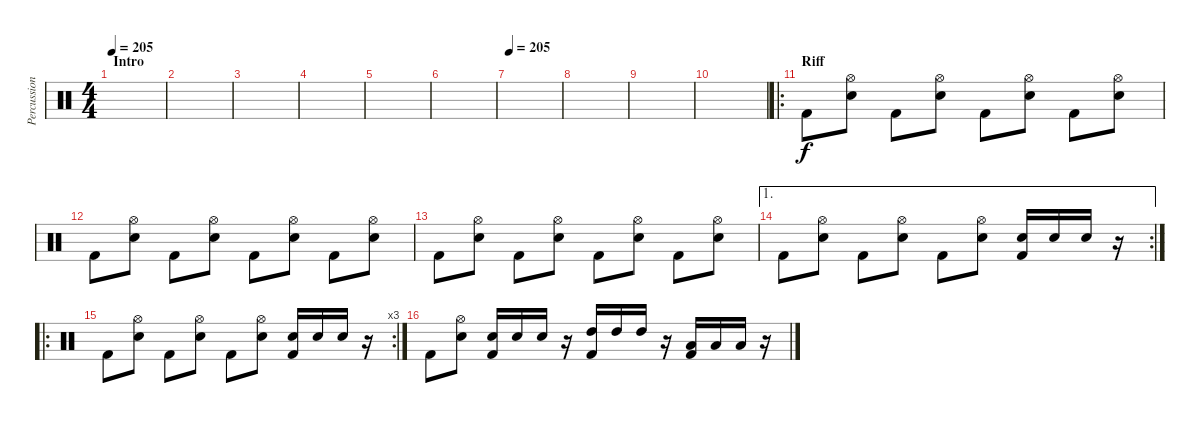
\track ("Percussions" "Percussion") {instrument percussion}
\staff {score}
\articulation defaults
\ts (4 4)
\section ("" "Intro")
\tempo 205
\tempo 160
\tempo 205
\clef neutral
\ks c
|
|
|
|
|
|
\tempo 205
|
|
|
|
\ro
\section ("" "Riff")
"Kick (hit) 2".8 ("Hi-Hat (open)" "Snare (hit) 2").8 "Kick (hit) 2".8 ("Hi-Hat (open)" "Snare (hit) 2").8 "Kick (hit) 2".8 ("Hi-Hat (open)" "Snare (hit) 2").8 "Kick (hit) 2".8 ("Hi-Hat (open)" "Snare (hit) 2").8 |
"Kick (hit) 2".8 ("Hi-Hat (open)" "Snare (hit) 2").8 "Kick (hit) 2".8 ("Hi-Hat (open)" "Snare (hit) 2").8 "Kick (hit) 2".8 ("Hi-Hat (open)" "Snare (hit) 2").8 "Kick (hit) 2".8 ("Hi-Hat (open)" "Snare (hit) 2").8 |
"Kick (hit) 2".8 ("Hi-Hat (open)" "Snare (hit) 2").8 "Kick (hit) 2".8 ("Hi-Hat (open)" "Snare (hit) 2").8 "Kick (hit) 2".8 ("Hi-Hat (open)" "Snare (hit) 2").8 "Kick (hit) 2".8 ("Hi-Hat (open)" "Snare (hit) 2").8 |
\ae 1
\rc 2 "Kick (hit) 2".8
("Hi-Hat (open)" "Snare (hit) 2").8 "Kick (hit) 2".8 ("Hi-Hat (open)" "Snare (hit) 2").8 "Kick (hit) 2".8 ("Hi-Hat (open)" "Snare (hit) 2").8 ("Snare (hit) 2" "Kick (hit) 2").16 "Snare (hit) 2".16 "Snare (hit) 2".16 r.16 |
\ro
\rc 3 "Kick (hit) 2".8
("Hi-Hat (open)" "Snare (hit) 2").8 "Kick (hit) 2".8 ("Hi-Hat (open)" "Snare (hit) 2").8 "Kick (hit) 2".8 ("Hi-Hat (open)" "Snare (hit) 2").8 ("Snare (hit) 2" "Kick (hit) 2").16 "Snare (hit) 2".16 "Snare (hit) 2".16 r.16 |
"Kick (hit) 2".8 ("Hi-Hat (open)" "Snare (hit) 2").8 ("Snare (hit) 2" "Kick (hit) 2").16 "Snare (hit) 2".16 "Snare (hit) 2".16 r.16 ("High Tom (hit)" "Kick (hit) 2").16 "High Tom (hit)".16 "High Tom (hit)".16 r.16 ("Low Tom (hit)" "Kick (hit) 2").16 "Low Tom (hit)".16 "Low Tom (hit)".16 r.16
